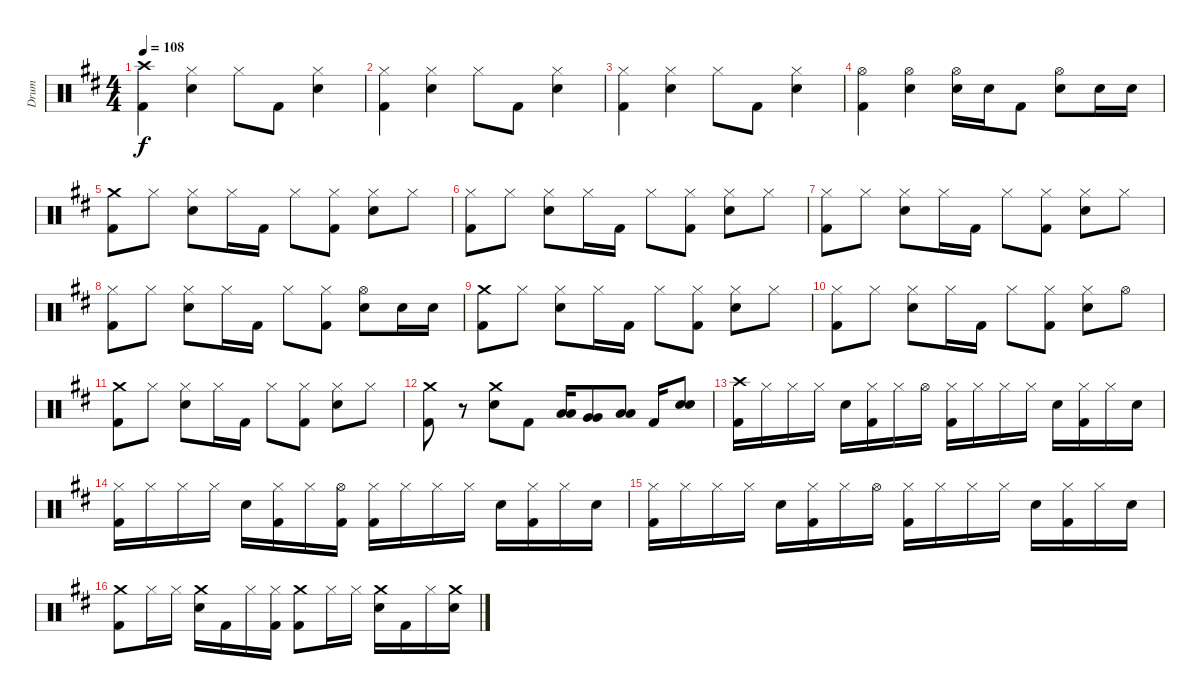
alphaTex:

\track ("Drum" "Drum") {instrument percussion}
\staff {score}
\articulation defaults
\ts (4 4)
\tempo 108
\clef neutral
\ks d
("Crash high (hit)" "Kick (hit) 2").4{dy f} ("Hi-Hat (closed)" "Snare (hit) 2").4 "Hi-Hat (closed)".8 "Kick (hit) 2".8 ("Hi-Hat (closed)" "Snare (hit) 2").4 |
("Hi-Hat (closed)" "Kick (hit) 2").4 ("Hi-Hat (closed)" "Snare (hit) 2").4 "Hi-Hat (closed)".8 "Kick (hit) 2".8 ("Hi-Hat (closed)" "Snare (hit) 2").4 |
("Hi-Hat (closed)" "Kick (hit) 2").4 ("Hi-Hat (closed)" "Snare (hit) 2").4 "Hi-Hat (closed)".8 "Kick (hit) 2".8 ("Hi-Hat (closed)" "Snare (hit) 2").4 |
("Hi-Hat (open)" "Kick (hit) 2").4 ("Hi-Hat (open)" "Snare (hit) 2").4 ("Hi-Hat (open)" "Snare (hit) 2").16 "Snare (hit) 2".16 "Kick (hit) 2".8 ("Hi-Hat (open)" "Snare (hit) 2").8 "Snare (hit) 2".16 "Snare (hit) 2".16 |
("Crash medium (hit)" "Kick (hit) 2").8 "Hi-Hat (closed)".8 ("Hi-Hat (closed)" "Snare (hit) 2").8 "Hi-Hat (closed)".16 "Kick (hit) 2".16 "Hi-Hat (closed)".8 ("Hi-Hat (closed)" "Kick (hit) 2").8 ("Hi-Hat (closed)" "Snare (hit) 2").8 "Hi-Hat (closed)".8 |
("Hi-Hat (closed)" "Kick (hit) 2").8 "Hi-Hat (closed)".8 ("Hi-Hat (closed)" "Snare (hit) 2").8 "Hi-Hat (closed)".16 "Kick (hit) 2".16 "Hi-Hat (closed)".8 ("Hi-Hat (closed)" "Kick (hit) 2").8 ("Hi-Hat (closed)" "Snare (hit) 2").8 "Hi-Hat (closed)".8 |
("Hi-Hat (closed)" "Kick (hit) 2").8 "Hi-Hat (closed)".8 ("Hi-Hat (closed)" "Snare (hit) 2").8 "Hi-Hat (closed)".16 "Kick (hit) 2".16 "Hi-Hat (closed)".8 ("Hi-Hat (closed)" "Kick (hit) 2").8 ("Hi-Hat (closed)" "Snare (hit) 2").8 "Hi-Hat (closed)".8 |
("Hi-Hat (closed)" "Kick (hit) 2").8 "Hi-Hat (closed)".8 ("Hi-Hat (closed)" "Snare (hit) 2").8 "Hi-Hat (closed)".16 "Kick (hit) 2".16 "Hi-Hat (closed)".8 ("Hi-Hat (closed)" "Kick (hit) 2").8 ("Hi-Hat (open)" "Snare (hit) 2").8 "Snare (hit) 2".16 "Snare (hit) 2".16 |
("Crash medium (hit)" "Kick (hit) 2").8 "Hi-Hat (closed)".8 ("Hi-Hat (closed)" "Snare (hit) 2").8 "Hi-Hat (closed)".16 "Kick (hit) 2".16 "Hi-Hat (closed)".8 ("Hi-Hat (closed)" "Kick (hit) 2").8 ("Hi-Hat (closed)" "Snare (hit) 2").8 "Hi-Hat (closed)".8 |
("Hi-Hat (closed)" "Kick (hit) 2").8 "Hi-Hat (closed)".8 ("Hi-Hat (closed)" "Snare (hit) 2").8 "Hi-Hat (closed)".16 "Kick (hit) 2".16 "Hi-Hat (closed)".8 ("Hi-Hat (closed)" "Kick (hit) 2").8 ("Hi-Hat (closed)" "Snare (hit) 2").8 "Hi-Hat (open)".8 |
("Crash medium (hit)" "Kick (hit) 2").8 "Hi-Hat (closed)".8 ("Hi-Hat (closed)" "Snare (hit) 2").8 "Hi-Hat (closed)".16 "Kick (hit) 2".16 "Hi-Hat (closed)".8 ("Hi-Hat (closed)" "Kick (hit) 2").8 ("Hi-Hat (closed)" "Snare (hit) 2").8 "Hi-Hat (closed)".8 |
("Crash medium (hit)" "Kick (hit) 2").8 r.8 ("Crash medium (hit)" "Snare (hit) 2").8 "Kick (hit) 2".8 ("Low Tom (hit)" "Low Tom (hit)").16{bd 240} ("Very Low Tom (hit)" "Very Low Tom (hit)").8{bd 240} ("Low Floor Tom (hit)" "Low Floor Tom (hit)").8{bd 240} "Kick (hit) 2".16 ("Snare (hit) 2" "Snare (hit) 2").8{bd 240} |
("Crash high (hit)" "Kick (hit) 2").16 "Hi-Hat (closed)".16 "Hi-Hat (closed)".16 "Hi-Hat (closed)".16 "Snare (hit) 2".16 ("Hi-Hat (closed)" "Kick (hit) 2").16 "Hi-Hat (closed)".16 "Hi-Hat (open)".16 ("Hi-Hat (closed)" "Kick (hit) 2").16 "Hi-Hat (closed)".16 "Hi-Hat (closed)".16 "Hi-Hat (closed)".16 "Snare (hit) 2".16 ("Hi-Hat (closed)" "Kick (hit) 2").16 "Hi-Hat (closed)".16 "Snare (hit) 2".16 |
("Hi-Hat (closed)" "Kick (hit) 2").16 "Hi-Hat (closed)".16 "Hi-Hat (closed)".16 "Hi-Hat (closed)".16 "Snare (hit) 2".16 ("Hi-Hat (closed)" "Kick (hit) 2").16 "Hi-Hat (closed)".16 ("Hi-Hat (open)" "Kick (hit) 2").16 ("Hi-Hat (closed)" "Kick (hit) 2").16 "Hi-Hat (closed)".16 "Hi-Hat (closed)".16 "Hi-Hat (closed)".16 "Snare (hit) 2".16 ("Hi-Hat (closed)" "Kick (hit) 2").16 "Hi-Hat (closed)".16 "Snare (hit) 2".16 |
("Hi-Hat (closed)" "Kick (hit) 2").16 "Hi-Hat (closed)".16 "Hi-Hat (closed)".16 "Hi-Hat (closed)".16 "Snare (hit) 2".16 ("Hi-Hat (closed)" "Kick (hit) 2").16 "Hi-Hat (closed)".16 "Hi-Hat (open)".16 ("Hi-Hat (closed)" "Kick (hit) 2").16 "Hi-Hat (closed)".16 "Hi-Hat (closed)".16 "Hi-Hat (closed)".16 "Snare (hit) 2".16 ("Hi-Hat (closed)" "Kick (hit) 2").16 "Hi-Hat (closed)".16 "Snare (hit) 2".16 |
("Crash medium (hit)" "Kick (hit) 2").8 "Hi-Hat (closed)".16 "Hi-Hat (closed)".16 ("Crash medium (hit)" "Snare (hit) 2").16 "Kick (hit) 2".16 "Hi-Hat (closed)".16 ("Hi-Hat (closed)" "Kick (hit) 2").16 ("Crash medium (hit)" "Kick (hit) 2").8 "Hi-Hat (closed)".16 "Hi-Hat (closed)".16 ("Crash medium (hit)" "Snare (hit) 2").16 "Kick (hit) 2".16 "Hi-Hat (closed)".16 ("Crash medium (hit)" "Snare (hit) 2").16
